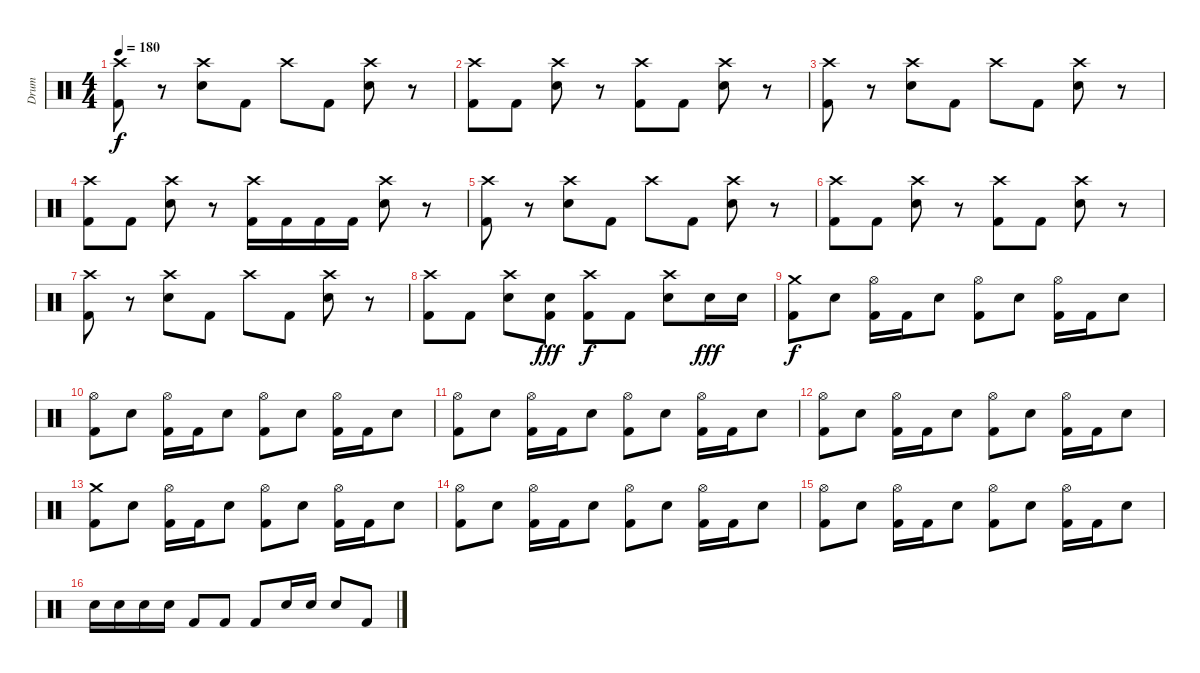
\track ("Drum" "Drum") {instrument percussion}
\staff {score}
\articulation defaults
\ts (4 4)
\tempo 180
\clef neutral
\ks c
("Crash high (hit)" "Kick (hit) 2").8{dy f} r.8 ("Crash high (hit)" "Snare (hit) 2").8 "Kick (hit) 2".8 "Crash high (hit)".8 "Kick (hit) 2".8 ("Crash high (hit)" "Snare (hit) 2").8 r.8 |
("Crash high (hit)" "Kick (hit) 2").8 "Kick (hit) 2".8 ("Crash high (hit)" "Snare (hit) 2").8 r.8 ("Crash high (hit)" "Kick (hit) 2").8 "Kick (hit) 2".8 ("Crash high (hit)" "Snare (hit) 2").8 r.8 |
("Crash high (hit)" "Kick (hit) 2").8 r.8 ("Crash high (hit)" "Snare (hit) 2").8 "Kick (hit) 2".8 "Crash high (hit)".8 "Kick (hit) 2".8 ("Crash high (hit)" "Snare (hit) 2").8 r.8 |
("Crash high (hit)" "Kick (hit) 2").8 "Kick (hit) 2".8 ("Crash high (hit)" "Snare (hit) 2").8 r.8 ("Crash high (hit)" "Kick (hit) 2").16 "Kick (hit) 2".16 "Kick (hit) 2".16 "Kick (hit) 2".16 ("Crash high (hit)" "Snare (hit) 2").8 r.8 |
("Crash high (hit)" "Kick (hit) 2").8 r.8 ("Crash high (hit)" "Snare (hit) 2").8 "Kick (hit) 2".8 "Crash high (hit)".8 "Kick (hit) 2".8 ("Crash high (hit)" "Snare (hit) 2").8 r.8 |
("Crash high (hit)" "Kick (hit) 2").8 "Kick (hit) 2".8 ("Crash high (hit)" "Snare (hit) 2").8 r.8 ("Crash high (hit)" "Kick (hit) 2").8 "Kick (hit) 2".8 ("Crash high (hit)" "Snare (hit) 2").8 r.8 |
("Crash high (hit)" "Kick (hit) 2").8 r.8 ("Crash high (hit)" "Snare (hit) 2").8 "Kick (hit) 2".8 "Crash high (hit)".8 "Kick (hit) 2".8 ("Crash high (hit)" "Snare (hit) 2").8 r.8 |
("Crash high (hit)" "Kick (hit) 2").8 "Kick (hit) 2".8 ("Crash high (hit)" "Snare (hit) 2").8 ("Snare (hit) 2" "Kick (hit) 2").8{dy fff} ("Crash high (hit)" "Kick (hit) 2").8{dy f} "Kick (hit) 2".8 ("Crash high (hit)" "Snare (hit) 2").8 "Snare (hit) 2".16{dy fff} "Snare (hit) 2".16 |
("Crash medium (hit)" "Kick (hit) 2").8{dy f} "Snare (hit) 2".8 ("Hi-Hat (open)" "Kick (hit) 2").16 "Kick (hit) 2".16 "Snare (hit) 2".8 ("Hi-Hat (open)" "Kick (hit) 2").8 "Snare (hit) 2".8 ("Hi-Hat (open)" "Kick (hit) 2").16 "Kick (hit) 2".16 "Snare (hit) 2".8 |
("Hi-Hat (open)" "Kick (hit) 2").8 "Snare (hit) 2".8 ("Hi-Hat (open)" "Kick (hit) 2").16 "Kick (hit) 2".16 "Snare (hit) 2".8 ("Hi-Hat (open)" "Kick (hit) 2").8 "Snare (hit) 2".8 ("Hi-Hat (open)" "Kick (hit) 2").16 "Kick (hit) 2".16 "Snare (hit) 2".8 |
("Hi-Hat (open)" "Kick (hit) 2").8 "Snare (hit) 2".8 ("Hi-Hat (open)" "Kick (hit) 2").16 "Kick (hit) 2".16 "Snare (hit) 2".8 ("Hi-Hat (open)" "Kick (hit) 2").8 "Snare (hit) 2".8 ("Hi-Hat (open)" "Kick (hit) 2").16 "Kick (hit) 2".16 "Snare (hit) 2".8 |
("Hi-Hat (open)" "Kick (hit) 2").8 "Snare (hit) 2".8 ("Hi-Hat (open)" "Kick (hit) 2").16 "Kick (hit) 2".16 "Snare (hit) 2".8 ("Hi-Hat (open)" "Kick (hit) 2").8 "Snare (hit) 2".8 ("Hi-Hat (open)" "Kick (hit) 2").16 "Kick (hit) 2".16 "Snare (hit) 2".8 |
("Crash medium (hit)" "Kick (hit) 2").8 "Snare (hit) 2".8 ("Hi-Hat (open)" "Kick (hit) 2").16 "Kick (hit) 2".16 "Snare (hit) 2".8 ("Hi-Hat (open)" "Kick (hit) 2").8 "Snare (hit) 2".8 ("Hi-Hat (open)" "Kick (hit) 2").16 "Kick (hit) 2".16 "Snare (hit) 2".8 |
("Hi-Hat (open)" "Kick (hit) 2").8 "Snare (hit) 2".8 ("Hi-Hat (open)" "Kick (hit) 2").16 "Kick (hit) 2".16 "Snare (hit) 2".8 ("Hi-Hat (open)" "Kick (hit) 2").8 "Snare (hit) 2".8 ("Hi-Hat (open)" "Kick (hit) 2").16 "Kick (hit) 2".16 "Snare (hit) 2".8 |
("Hi-Hat (open)" "Kick (hit) 2").8 "Snare (hit) 2".8 ("Hi-Hat (open)" "Kick (hit) 2").16 "Kick (hit) 2".16 "Snare (hit) 2".8 ("Hi-Hat (open)" "Kick (hit) 2").8 "Snare (hit) 2".8 ("Hi-Hat (open)" "Kick (hit) 2").16 "Kick (hit) 2".16 "Snare (hit) 2".8 |
"Snare (hit) 2".16 "Snare (hit) 2".16 "Snare (hit) 2".16 "Snare (hit) 2".16 "Kick (hit) 2".8 "Kick (hit) 2".8 "Kick (hit) 2".8 "Snare (hit) 2".16 "Snare (hit) 2".16 "Snare (hit) 2".8 "Kick (hit) 2".8
